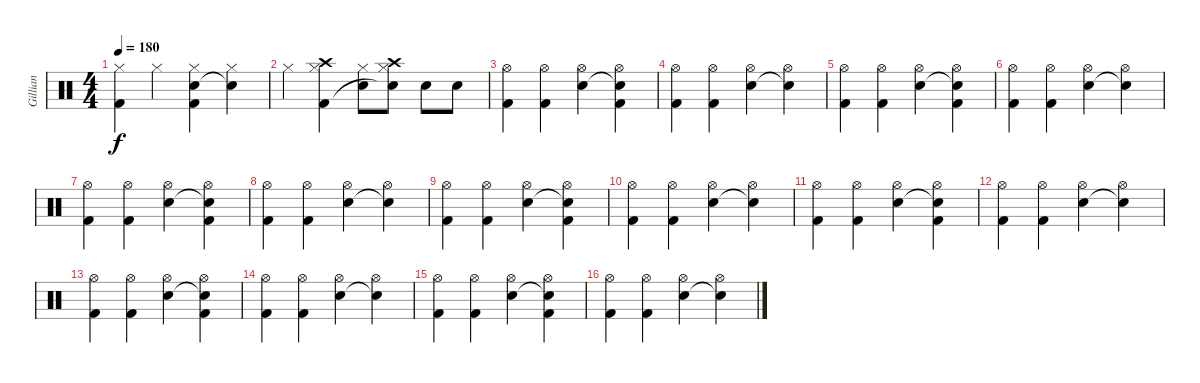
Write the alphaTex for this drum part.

\track ("Gillian" "Gillian") {instrument percussion}
\staff {score}
\articulation defaults
\ts (4 4)
\tempo 180
\clef neutral
\ks c
("Hi-Hat (closed)" "Kick (hit) 2").4{dy f} "Hi-Hat (closed)".4 ("Electric Snare (hit)" "Hi-Hat (closed)" "Kick (hit) 2").4 ("Snare (hit)"{t} "Hi-Hat (closed)").4 |
"Hi-Hat (closed)".4 ("Crash high (hit)" "Hi-Hat (closed)" "Kick (hit) 2").4 ("Hi-Hat (closed)" "Electric Snare (hit)").8 ("Crash high (hit)" "Hi-Hat (closed)" "Snare (hit)"{t}).8 "Electric Snare (hit)".8 "Electric Snare (hit)".8 |
("Hi-Hat (open)" "Kick (hit) 2").4 ("Hi-Hat (open)" "Kick (hit) 2").4 ("Hi-Hat (open)" "Electric Snare (hit)").4 ("Hi-Hat (open)" "Snare (hit)"{t} "Kick (hit) 2").4 |
("Hi-Hat (open)" "Kick (hit) 2").4 ("Hi-Hat (open)" "Kick (hit) 2").4 ("Hi-Hat (open)" "Electric Snare (hit)").4 ("Hi-Hat (open)" "Snare (hit)"{t}).4 |
("Hi-Hat (open)" "Kick (hit) 2").4 ("Hi-Hat (open)" "Kick (hit) 2").4 ("Hi-Hat (open)" "Electric Snare (hit)").4 ("Hi-Hat (open)" "Snare (hit)"{t} "Kick (hit) 2").4 |
("Hi-Hat (open)" "Kick (hit) 2").4 ("Hi-Hat (open)" "Kick (hit) 2").4 ("Hi-Hat (open)" "Electric Snare (hit)").4 ("Hi-Hat (open)" "Snare (hit)"{t}).4 |
("Hi-Hat (open)" "Kick (hit) 2").4 ("Hi-Hat (open)" "Kick (hit) 2").4 ("Hi-Hat (open)" "Electric Snare (hit)").4 ("Hi-Hat (open)" "Snare (hit)"{t} "Kick (hit) 2").4 |
("Hi-Hat (open)" "Kick (hit) 2").4 ("Hi-Hat (open)" "Kick (hit) 2").4 ("Hi-Hat (open)" "Electric Snare (hit)").4 ("Hi-Hat (open)" "Snare (hit)"{t}).4 |
("Hi-Hat (open)" "Kick (hit) 2").4 ("Hi-Hat (open)" "Kick (hit) 2").4 ("Hi-Hat (open)" "Electric Snare (hit)").4 ("Hi-Hat (open)" "Snare (hit)"{t} "Kick (hit) 2").4 |
("Hi-Hat (open)" "Kick (hit) 2").4 ("Hi-Hat (open)" "Kick (hit) 2").4 ("Hi-Hat (open)" "Electric Snare (hit)").4 ("Hi-Hat (open)" "Snare (hit)"{t}).4 |
("Hi-Hat (open)" "Kick (hit) 2").4 ("Hi-Hat (open)" "Kick (hit) 2").4 ("Hi-Hat (open)" "Electric Snare (hit)").4 ("Hi-Hat (open)" "Snare (hit)"{t} "Kick (hit) 2").4 |
("Hi-Hat (open)" "Kick (hit) 2").4 ("Hi-Hat (open)" "Kick (hit) 2").4 ("Hi-Hat (open)" "Electric Snare (hit)").4 ("Hi-Hat (open)" "Snare (hit)"{t}).4 |
("Hi-Hat (open)" "Kick (hit) 2").4 ("Hi-Hat (open)" "Kick (hit) 2").4 ("Hi-Hat (open)" "Electric Snare (hit)").4 ("Hi-Hat (open)" "Snare (hit)"{t} "Kick (hit) 2").4 |
("Hi-Hat (open)" "Kick (hit) 2").4 ("Hi-Hat (open)" "Kick (hit) 2").4 ("Hi-Hat (open)" "Electric Snare (hit)").4 ("Hi-Hat (open)" "Snare (hit)"{t}).4 |
("Hi-Hat (open)" "Kick (hit) 2").4 ("Hi-Hat (open)" "Kick (hit) 2").4 ("Hi-Hat (open)" "Electric Snare (hit)").4 ("Hi-Hat (open)" "Snare (hit)"{t} "Kick (hit) 2").4 |
("Hi-Hat (open)" "Kick (hit) 2").4 ("Hi-Hat (open)" "Kick (hit) 2").4 ("Hi-Hat (open)" "Electric Snare (hit)").4 ("Hi-Hat (open)" "Snare (hit)"{t}).4
